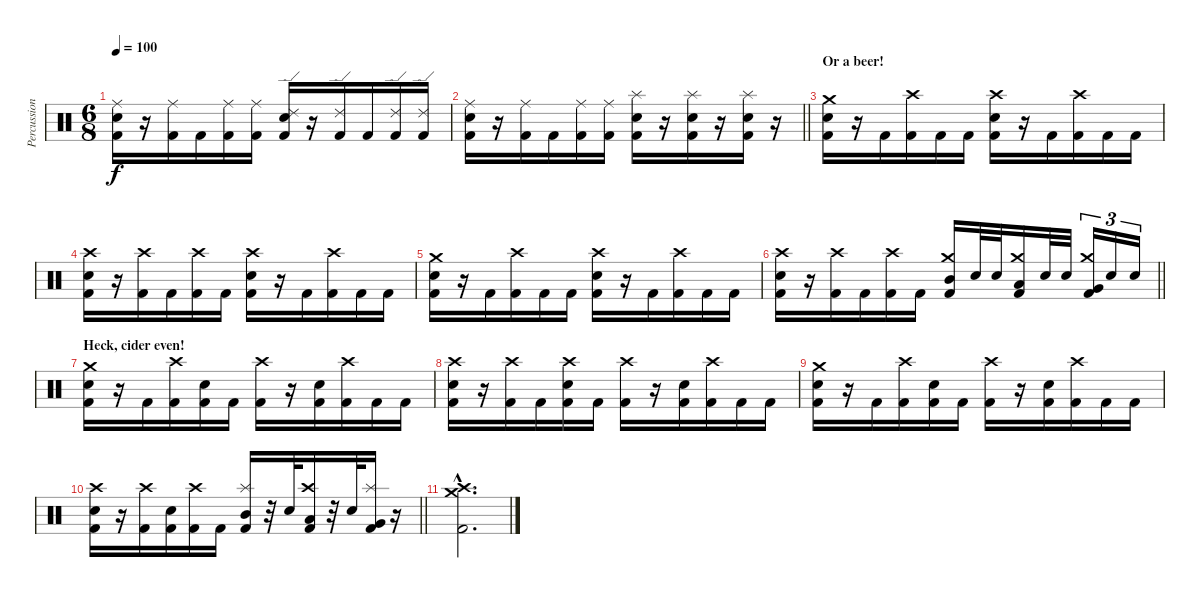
\track ("Percussion" "Percussion") {instrument percussion}
\staff {score}
\articulation defaults
\ts (6 8)
\tempo 100
\clef neutral
\ks c
("Ride (middle)" "Electric Snare (hit)" "Kick (hit) 2").16{dy f} r.16 ("Ride (middle)" "Kick (hit) 2").16 "Kick (hit) 2".16 ("Ride (middle)" "Kick (hit) 2").16 ("Ride (middle)" "Kick (hit) 2").16 ("Ride (edge) 2" "Electric Snare (hit)" "Kick (hit) 2").16 r.16 ("Ride (edge) 2" "Kick (hit) 2").16 "Kick (hit) 2".16 ("Ride (edge) 2" "Kick (hit) 2").16 ("Ride (edge) 2" "Kick (hit) 2").16 |
\barLineRight lightlight
("Ride (middle)" "Electric Snare (hit)" "Kick (hit) 2").16 r.16 ("Ride (middle)" "Kick (hit) 2").16 "Kick (hit) 2".16 ("Ride (middle)" "Kick (hit) 2").16 ("Ride (middle)" "Kick (hit) 2").16 ("Splash (hit)" "Electric Snare (hit)" "Kick (hit) 2").16 r.16 ("Splash (hit)" "Electric Snare (hit)" "Kick (hit) 2").16 r.16 ("Splash (hit)" "Electric Snare (hit)" "Kick (hit) 2").16 r.16 |
\section ("" "Or a beer!")
("Crash medium (hit)" "Electric Snare (hit)" "Kick (hit) 2").16 r.16 "Kick (hit) 2".16 ("Crash high (hit)" "Kick (hit) 2").16 "Kick (hit) 2".16 "Kick (hit) 2".16 ("Crash high (hit)" "Electric Snare (hit)" "Kick (hit) 2").16 r.16 "Kick (hit) 2".16 ("Crash high (hit)" "Kick (hit) 2").16 "Kick (hit) 2".16 "Kick (hit) 2".16 |
("Crash high (hit)" "Electric Snare (hit)" "Kick (hit) 2").16 r.16 ("Crash high (hit)" "Kick (hit) 2").16 "Kick (hit) 2".16 ("Crash high (hit)" "Kick (hit) 2").16 "Kick (hit) 2".16 ("Crash high (hit)" "Electric Snare (hit)" "Kick (hit) 2").16 r.16 "Kick (hit) 2".16 ("Crash high (hit)" "Kick (hit) 2").16 "Kick (hit) 2".16 "Kick (hit) 2".16 |
("Crash medium (hit)" "Electric Snare (hit)" "Kick (hit) 2").16 r.16 "Kick (hit) 2".16 ("Crash high (hit)" "Kick (hit) 2").16 "Kick (hit) 2".16 "Kick (hit) 2".16 ("Crash high (hit)" "Electric Snare (hit)" "Kick (hit) 2").16 r.16 "Kick (hit) 2".16 ("Crash high (hit)" "Kick (hit) 2").16 "Kick (hit) 2".16 "Kick (hit) 2".16 |
\barLineRight lightlight
("Crash high (hit)" "Electric Snare (hit)" "Kick (hit) 2").16 r.16 ("Crash high (hit)" "Kick (hit) 2").16 "Kick (hit) 2".16 ("Crash high (hit)" "Kick (hit) 2").16 "Kick (hit) 2".16 ("Crash medium (hit)" "Mid Tom (hit)" "Kick (hit) 2").16 "Electric Snare (hit)".32 "Electric Snare (hit)".32 ("Crash medium (hit)" "Low Tom (hit)" "Kick (hit) 2").16 "Electric Snare (hit)".32 "Electric Snare (hit)".32 ("Crash medium (hit)" "Very Low Tom (hit)" "Kick (hit) 2").16{tu (3 2)} "Electric Snare (hit)".16{tu (3 2)} "Electric Snare (hit)".16{tu (3 2)} |
\section ("" "Heck, cider even!")
("Crash medium (hit)" "Electric Snare (hit)" "Kick (hit) 2").16 r.16 "Kick (hit) 2".16 ("Crash high (hit)" "Kick (hit) 2").16 ("Electric Snare (hit)" "Kick (hit) 2").16 "Kick (hit) 2".16 ("Crash high (hit)" "Kick (hit) 2").16 r.16 ("Electric Snare (hit)" "Kick (hit) 2").16 ("Crash high (hit)" "Kick (hit) 2").16 "Kick (hit) 2".16 "Kick (hit) 2".16 |
("Crash high (hit)" "Electric Snare (hit)" "Kick (hit) 2").16 r.16 ("Crash high (hit)" "Kick (hit) 2").16 "Kick (hit) 2".16 ("Crash high (hit)" "Electric Snare (hit)" "Kick (hit) 2").16 "Kick (hit) 2".16 ("Crash high (hit)" "Kick (hit) 2").16 r.16 ("Electric Snare (hit)" "Kick (hit) 2").16 ("Crash high (hit)" "Kick (hit) 2").16 "Kick (hit) 2".16 "Kick (hit) 2".16 |
("Crash medium (hit)" "Electric Snare (hit)" "Kick (hit) 2").16 r.16 "Kick (hit) 2".16 ("Crash high (hit)" "Kick (hit) 2").16 ("Electric Snare (hit)" "Kick (hit) 2").16 "Kick (hit) 2".16 ("Crash high (hit)" "Kick (hit) 2").16 r.16 ("Electric Snare (hit)" "Kick (hit) 2").16 ("Crash high (hit)" "Kick (hit) 2").16 "Kick (hit) 2".16 "Kick (hit) 2".16 |
\barLineRight lightlight
("Crash high (hit)" "Electric Snare (hit)" "Kick (hit) 2").16 r.16 ("Crash high (hit)" "Kick (hit) 2").16 ("Electric Snare (hit)" "Kick (hit) 2").16 ("Crash high (hit)" "Kick (hit) 2").16 "Kick (hit) 2".16 ("Splash (hit)" "Mid Tom (hit)" "Kick (hit) 2").16 r.32 "Electric Snare (hit)".32 ("Crash high (hit)" "Low Tom (hit)" "Kick (hit) 2").16 r.32 "Electric Snare (hit)".32 ("Splash (hit)" "Very Low Tom (hit)" "Kick (hit) 2").16 r.16 |
("Crash medium (hit)"{hac} "Crash high (hit)"{hac} "Kick (hit) 2"{hac}).2{d}
